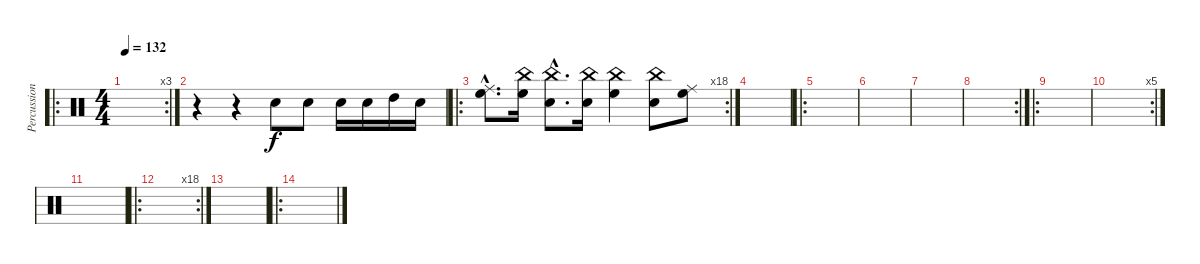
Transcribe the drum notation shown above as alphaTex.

\track ("Percussions" "Percussion") {instrument percussion}
\staff {score}
\articulation defaults
\ro
\rc 3
\ts (4 4)
\tempo 132
\clef neutral
\ks c
|
r.4 r.4 "Electric Snare (hit)".8 "Electric Snare (hit)".8 "Electric Snare (hit)".16 "Electric Snare (hit)".16 "High Tom (hit)".16 "Electric Snare (hit)".16 |
\ro
\rc 18
("Ride (middle)"{hac} "High Floor Tom (hit)"{hac}).8{d} ("China (hit)" "High Floor Tom (hit)").16 ("China (hit)"{hac} "Electric Snare (hit)"{hac}).8{d} ("China (hit)" "Electric Snare (hit)").16 ("China (hit)" "High Floor Tom (hit)").4 ("China (hit)" "Electric Snare (hit)").8 ("Ride (middle)" "High Floor Tom (hit)").8 |
|
\ro
|
|
|
\rc 2
|
\ro
|
\rc 5
|
|
\ro
\rc 18
|
|
\ro
